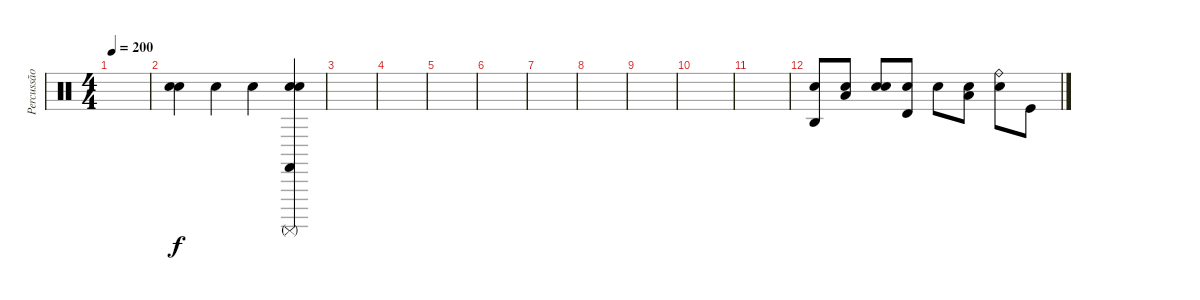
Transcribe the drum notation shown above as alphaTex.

\track ("Percussão" "Percussão") {instrument percussion}
\staff {score}
\articulation defaults
\ts (4 4)
\tempo 200
\clef neutral
\ks c
|
("Metronome (bell)" "Snare (hit)").4 "Snare (hit)".4 "Snare (hit)".4 ("Surdo (mute)" "Snare (hit)" "Snare (hit)" "Castanets (hit)").4 |
|
|
|
|
|
|
|
|
|
("Agogo high (hit)" "Snare (hit)").8 ("Metronome (bell)" "Low Tom (hit)").8 ("Snare (hit)" "Metronome (bell)").8 ("Timbale high (hit)" "Metronome (bell)").8 "Snare (hit)".8 ("Snare (hit)" "Low Tom (hit)").8 ("Ride (bell)" "Snare (hit)").8 "Kick (hit)".8
